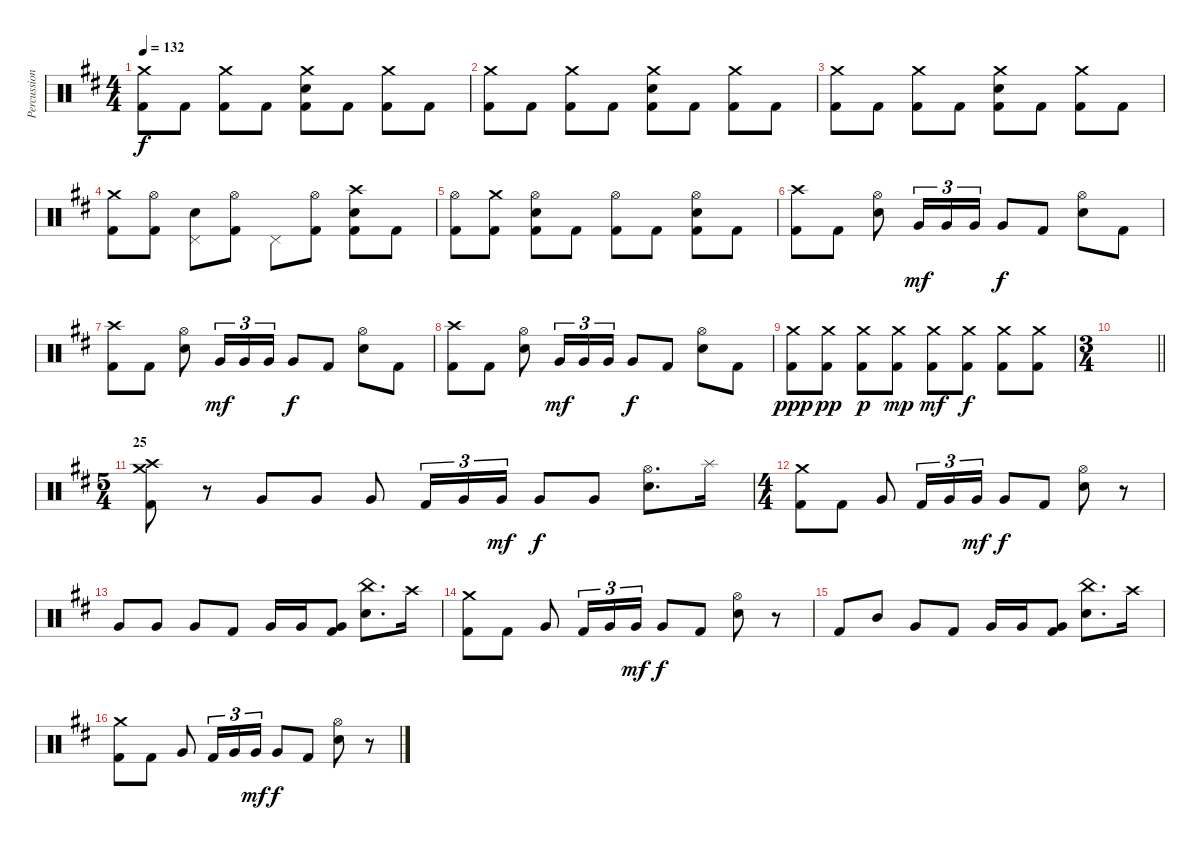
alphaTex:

\track ("Percussion" "Percussion") {instrument percussion}
\staff {score}
\articulation defaults
\ts (4 4)
\tempo 132
\clef neutral
\ks bminor
("Crash medium (hit)" "Kick (hit) 2").8{dy f} "Kick (hit) 2".8 ("Crash medium (hit)" "Kick (hit) 2").8 "Kick (hit) 2".8 ("Crash medium (hit)" "Snare (hit) 2" "Kick (hit) 2").8 "Kick (hit) 2".8 ("Crash medium (hit)" "Kick (hit) 2").8 "Kick (hit) 2".8 |
("Crash medium (hit)" "Kick (hit) 2").8 "Kick (hit) 2".8 ("Crash medium (hit)" "Kick (hit) 2").8 "Kick (hit) 2".8 ("Crash medium (hit)" "Snare (hit) 2" "Kick (hit) 2").8 "Kick (hit) 2".8 ("Crash medium (hit)" "Kick (hit) 2").8 "Kick (hit) 2".8 |
("Crash medium (hit)" "Kick (hit) 2").8 "Kick (hit) 2".8 ("Crash medium (hit)" "Kick (hit) 2").8 "Kick (hit) 2".8 ("Crash medium (hit)" "Snare (hit) 2" "Kick (hit) 2").8 "Kick (hit) 2".8 ("Crash medium (hit)" "Kick (hit) 2").8 "Kick (hit) 2".8 |
("Crash medium (hit)" "Kick (hit) 2").8 ("Hi-Hat (open)" "Kick (hit) 2").8 ("Pedal Hi-Hat (hit)" "Snare (hit) 2").8 ("Hi-Hat (open)" "Kick (hit) 2").8 "Pedal Hi-Hat (hit)".8 ("Hi-Hat (open)" "Kick (hit) 2").8 ("Crash high (hit)" "Snare (hit) 2" "Kick (hit) 2").8 "Kick (hit) 2".8 |
("Hi-Hat (open)" "Kick (hit) 2").8 ("Crash medium (hit)" "Kick (hit) 2").8 ("Hi-Hat (open)" "Snare (hit) 2" "Kick (hit) 2").8 "Kick (hit) 2".8 ("Hi-Hat (open)" "Kick (hit) 2").8 "Kick (hit) 2".8 ("Hi-Hat (open)" "Snare (hit) 2" "Kick (hit) 2").8 "Kick (hit) 2".8 |
("Crash high (hit)" "Kick (hit) 2").8 "Kick (hit) 2".8 ("Hi-Hat (open)" "Snare (hit) 2").8 "Very Low Tom (hit)".16{tu (3 2) dy mf} "Very Low Tom (hit)".16{tu (3 2)} "Very Low Tom (hit)".16{tu (3 2)} "Very Low Tom (hit)".8{dy f} "Kick (hit) 2".8 ("Hi-Hat (open)" "Snare (hit) 2").8 "Kick (hit) 2".8 |
("Crash high (hit)" "Kick (hit) 2").8 "Kick (hit) 2".8 ("Hi-Hat (open)" "Snare (hit) 2").8 "Very Low Tom (hit)".16{tu (3 2) dy mf} "Very Low Tom (hit)".16{tu (3 2)} "Very Low Tom (hit)".16{tu (3 2)} "Very Low Tom (hit)".8{dy f} "Kick (hit) 2".8 ("Hi-Hat (open)" "Snare (hit) 2").8 "Kick (hit) 2".8 |
("Crash high (hit)" "Kick (hit) 2").8 "Kick (hit) 2".8 ("Hi-Hat (open)" "Snare (hit) 2").8 "Very Low Tom (hit)".16{tu (3 2) dy mf} "Very Low Tom (hit)".16{tu (3 2)} "Very Low Tom (hit)".16{tu (3 2)} "Very Low Tom (hit)".8{dy f} "Kick (hit) 2".8 ("Hi-Hat (open)" "Snare (hit) 2").8 "Kick (hit) 2".8 |
("Crash medium (hit)" "Kick (hit) 2").8{dy ppp} ("Crash medium (hit)" "Kick (hit) 2").8{dy pp} ("Crash medium (hit)" "Kick (hit) 2").8{dy p} ("Crash medium (hit)" "Kick (hit) 2").8{dy mp} ("Crash medium (hit)" "Kick (hit) 2").8{dy mf} ("Crash medium (hit)" "Kick (hit) 2").8{dy f} ("Crash medium (hit)" "Kick (hit) 2").8 ("Crash medium (hit)" "Kick (hit) 2").8 |
\ts (3 4)
\barLineRight lightlight
|
\ts (5 4)
\section ("" "25")
("Crash medium (hit)" "Crash high (hit)" "Kick (hit) 2").8 r.8 "Very Low Tom (hit)".8 "Very Low Tom (hit)".8 "Very Low Tom (hit)".8 "Kick (hit) 2".16{tu (3 2)} "Very Low Tom (hit)".16{tu (3 2)} "Very Low Tom (hit)".16{tu (3 2) dy mf} "Very Low Tom (hit)".8{dy f} "Very Low Tom (hit)".8 ("Hi-Hat (open)" "Snare (hit) 2").8{d} "Splash (hit)".16 |
\ts (4 4)
("Crash medium (hit)" "Kick (hit) 2").8 "Kick (hit) 2".8 "Very Low Tom (hit)".8 "Kick (hit) 2".16{tu (3 2)} "Very Low Tom (hit)".16{tu (3 2)} "Very Low Tom (hit)".16{tu (3 2) dy mf} "Very Low Tom (hit)".8{dy f} "Kick (hit) 2".8 ("Hi-Hat (open)" "Snare (hit) 2").8 r.8 |
"Very Low Tom (hit)".8 "Very Low Tom (hit)".8 "Very Low Tom (hit)".8 "Kick (hit) 2".8 "Very Low Tom (hit)".16 "Very Low Tom (hit)".16 ("Very Low Tom (hit)" "Kick (hit) 2").8 ("China (hit)" "Snare (hit) 2").8{d} "Crash high (hit)".16 |
("Crash medium (hit)" "Kick (hit) 2").8 "Kick (hit) 2".8 "Very Low Tom (hit)".8 "Kick (hit) 2".16{tu (3 2)} "Very Low Tom (hit)".16{tu (3 2)} "Very Low Tom (hit)".16{tu (3 2) dy mf} "Very Low Tom (hit)".8{dy f} "Kick (hit) 2".8 ("Hi-Hat (open)" "Snare (hit) 2").8 r.8 |
"Kick (hit) 2".8 "Mid Tom (hit)".8 "Very Low Tom (hit)".8 "Kick (hit) 2".8 "Very Low Tom (hit)".16 "Very Low Tom (hit)".16 ("Very Low Tom (hit)" "Kick (hit) 2").8 ("China (hit)" "Snare (hit) 2").8{d} "Crash high (hit)".16 |
("Crash medium (hit)" "Kick (hit) 2").8 "Kick (hit) 2".8 "Very Low Tom (hit)".8 "Kick (hit) 2".16{tu (3 2)} "Very Low Tom (hit)".16{tu (3 2)} "Very Low Tom (hit)".16{tu (3 2) dy mf} "Very Low Tom (hit)".8{dy f} "Kick (hit) 2".8 ("Hi-Hat (open)" "Snare (hit) 2").8 r.8
